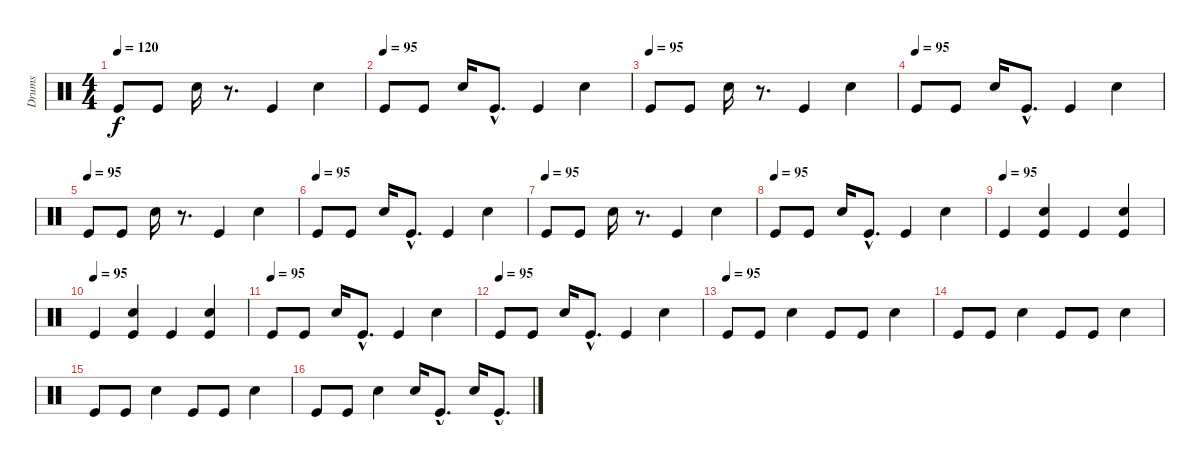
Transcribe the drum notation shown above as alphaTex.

\track ("Drums" "Drums") {instrument percussion}
\staff {score}
\articulation defaults
\ts (4 4)
\tempo 120
\tempo 95
\tempo 120
\clef neutral
\ks c "Kick (hit)".8{dy f} "Kick (hit)".8 "Snare (hit) 2".16
r.8{d} "Kick (hit)".4 "Snare (hit) 2".4 |
\tempo (95)
"Kick (hit)".8 "Kick (hit)".8 "Snare (hit) 2".16 "Kick (hit)"{hac}.8{d} "Kick (hit)".4 "Snare (hit) 2".4 |
\tempo (95)
"Kick (hit)".8 "Kick (hit)".8 "Snare (hit) 2".16 r.8{d} "Kick (hit)".4 "Snare (hit) 2".4 |
\tempo (95)
"Kick (hit)".8 "Kick (hit)".8 "Snare (hit) 2".16 "Kick (hit)"{hac}.8{d} "Kick (hit)".4 "Snare (hit) 2".4 |
\tempo (95)
"Kick (hit)".8 "Kick (hit)".8 "Snare (hit) 2".16 r.8{d} "Kick (hit)".4 "Snare (hit) 2".4 |
\tempo (95)
"Kick (hit)".8 "Kick (hit)".8 "Snare (hit) 2".16 "Kick (hit)"{hac}.8{d} "Kick (hit)".4 "Snare (hit) 2".4 |
\tempo (95)
"Kick (hit)".8 "Kick (hit)".8 "Snare (hit) 2".16 r.8{d} "Kick (hit)".4 "Snare (hit) 2".4 |
\tempo (95)
"Kick (hit)".8 "Kick (hit)".8 "Snare (hit) 2".16 "Kick (hit)"{hac}.8{d} "Kick (hit)".4 "Snare (hit) 2".4 |
\tempo (95)
"Kick (hit)".4 ("Snare (hit) 2" "Kick (hit)").4 "Kick (hit)".4 ("Snare (hit) 2" "Kick (hit)").4 |
\tempo (95)
"Kick (hit)".4 ("Snare (hit) 2" "Kick (hit)").4 "Kick (hit)".4 ("Snare (hit) 2" "Kick (hit)").4 |
\tempo (95)
"Kick (hit)".8 "Kick (hit)".8 "Snare (hit) 2".16 "Kick (hit)"{hac}.8{d} "Kick (hit)".4 "Snare (hit) 2".4 |
\tempo (95)
"Kick (hit)".8 "Kick (hit)".8 "Snare (hit) 2".16 "Kick (hit)"{hac}.8{d} "Kick (hit)".4 "Snare (hit) 2".4 |
\tempo (95)
"Kick (hit)".8 "Kick (hit)".8 "Snare (hit) 2".4 "Kick (hit)".8 "Kick (hit)".8 "Snare (hit) 2".4 |
"Kick (hit)".8 "Kick (hit)".8 "Snare (hit) 2".4 "Kick (hit)".8 "Kick (hit)".8 "Snare (hit) 2".4 |
"Kick (hit)".8 "Kick (hit)".8 "Snare (hit) 2".4 "Kick (hit)".8 "Kick (hit)".8 "Snare (hit) 2".4 |
"Kick (hit)".8 "Kick (hit)".8 "Snare (hit) 2".4 "Snare (hit) 2".16 "Kick (hit)"{hac}.8{d} "Snare (hit) 2".16 "Kick (hit)"{hac}.8{d}
